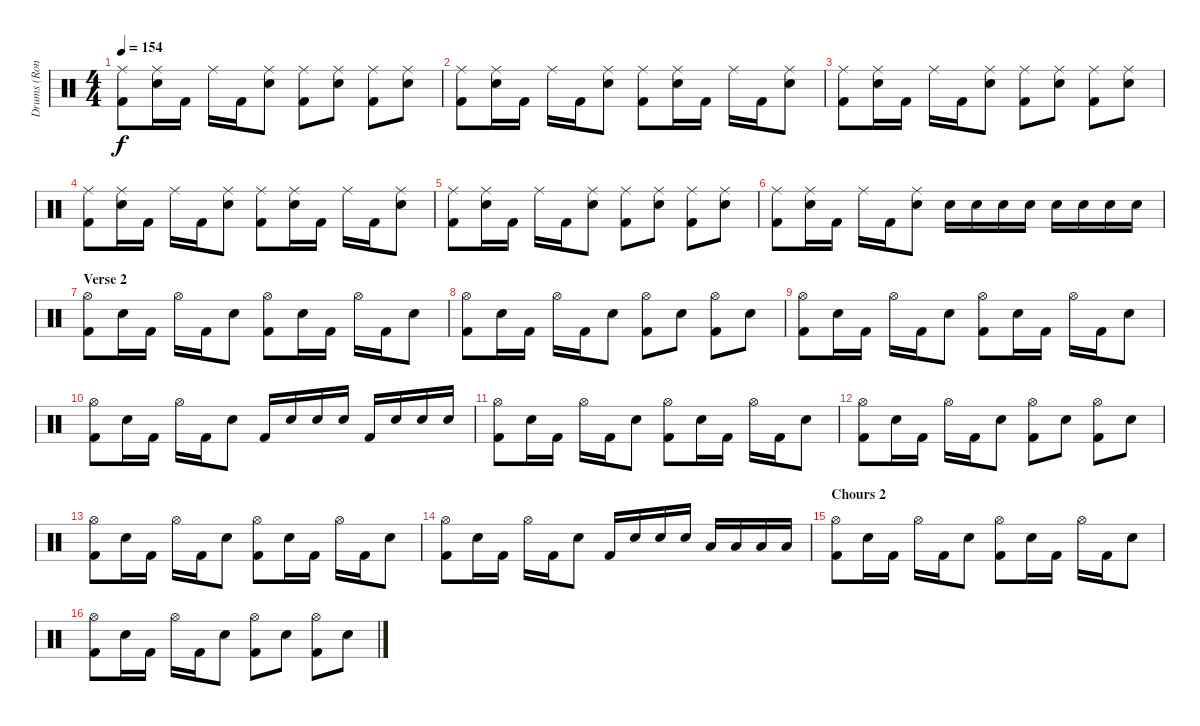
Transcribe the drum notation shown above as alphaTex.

\track ("Drums (Ron Welty)" "Drums (Ron") {instrument percussion}
\staff {score}
\articulation defaults
\ts (4 4)
\tempo 154
\clef neutral
\ks c
("Ride (middle)" "Kick (hit) 2").8{dy f} ("Ride (middle)" "Electric Snare (hit)").16 "Kick (hit) 2".16 "Ride (middle)".16 "Kick (hit) 2".16 ("Ride (middle)" "Electric Snare (hit)").8 ("Ride (middle)" "Kick (hit) 2").8 ("Ride (middle)" "Electric Snare (hit)").8 ("Ride (middle)" "Kick (hit) 2").8 ("Ride (middle)" "Electric Snare (hit)").8 |
("Ride (middle)" "Kick (hit) 2").8 ("Ride (middle)" "Electric Snare (hit)").16 "Kick (hit) 2".16 "Ride (middle)".16 "Kick (hit) 2".16 ("Ride (middle)" "Electric Snare (hit)").8 ("Ride (middle)" "Kick (hit) 2").8 ("Ride (middle)" "Electric Snare (hit)").16 "Kick (hit) 2".16 "Ride (middle)".16 "Kick (hit) 2".16 ("Ride (middle)" "Electric Snare (hit)").8 |
("Ride (middle)" "Kick (hit) 2").8 ("Ride (middle)" "Electric Snare (hit)").16 "Kick (hit) 2".16 "Ride (middle)".16 "Kick (hit) 2".16 ("Ride (middle)" "Electric Snare (hit)").8 ("Ride (middle)" "Kick (hit) 2").8 ("Ride (middle)" "Electric Snare (hit)").8 ("Ride (middle)" "Kick (hit) 2").8 ("Ride (middle)" "Electric Snare (hit)").8 |
("Ride (middle)" "Kick (hit) 2").8 ("Ride (middle)" "Electric Snare (hit)").16 "Kick (hit) 2".16 "Ride (middle)".16 "Kick (hit) 2".16 ("Ride (middle)" "Electric Snare (hit)").8 ("Ride (middle)" "Kick (hit) 2").8 ("Ride (middle)" "Electric Snare (hit)").16 "Kick (hit) 2".16 "Ride (middle)".16 "Kick (hit) 2".16 ("Ride (middle)" "Electric Snare (hit)").8 |
("Ride (middle)" "Kick (hit) 2").8 ("Ride (middle)" "Electric Snare (hit)").16 "Kick (hit) 2".16 "Ride (middle)".16 "Kick (hit) 2".16 ("Ride (middle)" "Electric Snare (hit)").8 ("Ride (middle)" "Kick (hit) 2").8 ("Ride (middle)" "Electric Snare (hit)").8 ("Ride (middle)" "Kick (hit) 2").8 ("Ride (middle)" "Electric Snare (hit)").8 |
("Ride (middle)" "Kick (hit) 2").8 ("Ride (middle)" "Electric Snare (hit)").16 "Kick (hit) 2".16 "Ride (middle)".16 "Kick (hit) 2".16 ("Ride (middle)" "Electric Snare (hit)").8 "Electric Snare (hit)".16 "Electric Snare (hit)".16 "Electric Snare (hit)".16 "Electric Snare (hit)".16 "Electric Snare (hit)".16 "Electric Snare (hit)".16 "Electric Snare (hit)".16 "Electric Snare (hit)".16 |
\section ("" "Verse 2")
("Hi-Hat (open)" "Kick (hit) 2").8 "Electric Snare (hit)".16 "Kick (hit) 2".16 "Hi-Hat (open)".16 "Kick (hit) 2".16 "Electric Snare (hit)".8 ("Hi-Hat (open)" "Kick (hit) 2").8 "Electric Snare (hit)".16 "Kick (hit) 2".16 "Hi-Hat (open)".16 "Kick (hit) 2".16 "Electric Snare (hit)".8 |
("Hi-Hat (open)" "Kick (hit) 2").8 "Electric Snare (hit)".16 "Kick (hit) 2".16 "Hi-Hat (open)".16 "Kick (hit) 2".16 "Electric Snare (hit)".8 ("Hi-Hat (open)" "Kick (hit) 2").8 "Electric Snare (hit)".8 ("Hi-Hat (open)" "Kick (hit) 2").8 "Electric Snare (hit)".8 |
("Hi-Hat (open)" "Kick (hit) 2").8 "Electric Snare (hit)".16 "Kick (hit) 2".16 "Hi-Hat (open)".16 "Kick (hit) 2".16 "Electric Snare (hit)".8 ("Hi-Hat (open)" "Kick (hit) 2").8 "Electric Snare (hit)".16 "Kick (hit) 2".16 "Hi-Hat (open)".16 "Kick (hit) 2".16 "Electric Snare (hit)".8 |
("Hi-Hat (open)" "Kick (hit) 2").8 "Electric Snare (hit)".16 "Kick (hit) 2".16 "Hi-Hat (open)".16 "Kick (hit) 2".16 "Electric Snare (hit)".8 "Kick (hit) 2".16 "Electric Snare (hit)".16 "Electric Snare (hit)".16 "Electric Snare (hit)".16 "Kick (hit) 2".16 "Electric Snare (hit)".16 "Electric Snare (hit)".16 "Electric Snare (hit)".16 |
("Hi-Hat (open)" "Kick (hit) 2").8 "Electric Snare (hit)".16 "Kick (hit) 2".16 "Hi-Hat (open)".16 "Kick (hit) 2".16 "Electric Snare (hit)".8 ("Hi-Hat (open)" "Kick (hit) 2").8 "Electric Snare (hit)".16 "Kick (hit) 2".16 "Hi-Hat (open)".16 "Kick (hit) 2".16 "Electric Snare (hit)".8 |
("Hi-Hat (open)" "Kick (hit) 2").8 "Electric Snare (hit)".16 "Kick (hit) 2".16 "Hi-Hat (open)".16 "Kick (hit) 2".16 "Electric Snare (hit)".8 ("Hi-Hat (open)" "Kick (hit) 2").8 "Electric Snare (hit)".8 ("Hi-Hat (open)" "Kick (hit) 2").8 "Electric Snare (hit)".8 |
("Hi-Hat (open)" "Kick (hit) 2").8 "Electric Snare (hit)".16 "Kick (hit) 2".16 "Hi-Hat (open)".16 "Kick (hit) 2".16 "Electric Snare (hit)".8 ("Hi-Hat (open)" "Kick (hit) 2").8 "Electric Snare (hit)".16 "Kick (hit) 2".16 "Hi-Hat (open)".16 "Kick (hit) 2".16 "Electric Snare (hit)".8 |
("Hi-Hat (open)" "Kick (hit) 2").8 "Electric Snare (hit)".16 "Kick (hit) 2".16 "Hi-Hat (open)".16 "Kick (hit) 2".16 "Electric Snare (hit)".8 "Kick (hit) 2".16 "Electric Snare (hit)".16 "Electric Snare (hit)".16 "Electric Snare (hit)".16 "Low Tom (hit)".16 "Low Tom (hit)".16 "Low Floor Tom (hit)".16 "Low Floor Tom (hit)".16 |
\section ("" "Chours 2")
("Hi-Hat (open)" "Kick (hit) 2").8 "Electric Snare (hit)".16 "Kick (hit) 2".16 "Hi-Hat (open)".16 "Kick (hit) 2".16 "Electric Snare (hit)".8 ("Hi-Hat (open)" "Kick (hit) 2").8 "Electric Snare (hit)".16 "Kick (hit) 2".16 "Hi-Hat (open)".16 "Kick (hit) 2".16 "Electric Snare (hit)".8 |
("Hi-Hat (open)" "Kick (hit) 2").8 "Electric Snare (hit)".16 "Kick (hit) 2".16 "Hi-Hat (open)".16 "Kick (hit) 2".16 "Electric Snare (hit)".8 ("Hi-Hat (open)" "Kick (hit) 2").8 "Electric Snare (hit)".8 ("Hi-Hat (open)" "Kick (hit) 2").8 "Electric Snare (hit)".8
